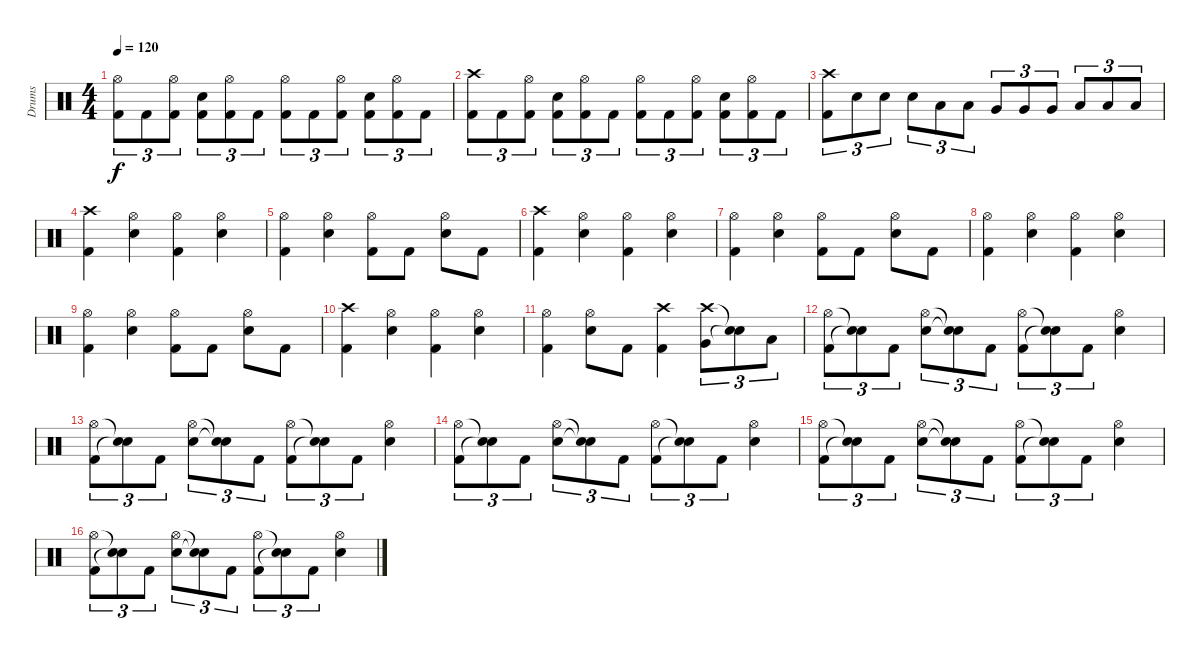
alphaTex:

\track ("Drums" "Drums") {instrument percussion}
\staff {score}
\articulation defaults
\ts (4 4)
\tempo 120
\clef neutral
\ks c
("Hi-Hat (open)" "Kick (hit) 2").8{tu (3 2) dy f} "Kick (hit) 2".8{tu (3 2)} ("Hi-Hat (open)" "Kick (hit) 2").8{tu (3 2)} ("Electric Snare (hit)" "Kick (hit) 2").8{tu (3 2)} ("Hi-Hat (open)" "Kick (hit) 2").8{tu (3 2)} "Kick (hit) 2".8{tu (3 2)} ("Hi-Hat (open)" "Kick (hit) 2").8{tu (3 2)} "Kick (hit) 2".8{tu (3 2)} ("Hi-Hat (open)" "Kick (hit) 2").8{tu (3 2)} ("Electric Snare (hit)" "Kick (hit) 2").8{tu (3 2)} ("Hi-Hat (open)" "Kick (hit) 2").8{tu (3 2)} "Kick (hit) 2".8{tu (3 2)} |
("Crash high (hit)" "Kick (hit) 2").8{tu (3 2)} "Kick (hit) 2".8{tu (3 2)} ("Hi-Hat (open)" "Kick (hit) 2").8{tu (3 2)} ("Electric Snare (hit)" "Kick (hit) 2").8{tu (3 2)} ("Hi-Hat (open)" "Kick (hit) 2").8{tu (3 2)} "Kick (hit) 2".8{tu (3 2)} ("Hi-Hat (open)" "Kick (hit) 2").8{tu (3 2)} "Kick (hit) 2".8{tu (3 2)} ("Hi-Hat (open)" "Kick (hit) 2").8{tu (3 2)} ("Electric Snare (hit)" "Kick (hit) 2").8{tu (3 2)} ("Hi-Hat (open)" "Kick (hit) 2").8{tu (3 2)} "Kick (hit) 2".8{tu (3 2)} |
("Crash high (hit)" "Kick (hit) 2").8{tu (3 2)} "Electric Snare (hit)".8{tu (3 2)} "Electric Snare (hit)".8{tu (3 2)} "Electric Snare (hit)".8{tu (3 2)} "Low Tom (hit)".8{tu (3 2)} "Low Tom (hit)".8{tu (3 2)} "Very Low Tom (hit)".8{tu (3 2)} "Very Low Tom (hit)".8{tu (3 2)} "Very Low Tom (hit)".8{tu (3 2)} "Low Floor Tom (hit)".8{tu (3 2)} "Low Floor Tom (hit)".8{tu (3 2)} "Low Floor Tom (hit)".8{tu (3 2)} |
("Crash high (hit)" "Kick (hit) 2").4 ("Hi-Hat (open)" "Electric Snare (hit)").4 ("Hi-Hat (open)" "Kick (hit) 2").4 ("Hi-Hat (open)" "Electric Snare (hit)").4 |
("Hi-Hat (open)" "Kick (hit) 2").4 ("Hi-Hat (open)" "Electric Snare (hit)").4 ("Hi-Hat (open)" "Kick (hit) 2").8 "Kick (hit) 2".8 ("Hi-Hat (open)" "Electric Snare (hit)").8 "Kick (hit) 2".8 |
("Crash high (hit)" "Kick (hit) 2").4 ("Hi-Hat (open)" "Electric Snare (hit)").4 ("Hi-Hat (open)" "Kick (hit) 2").4 ("Hi-Hat (open)" "Electric Snare (hit)").4 |
("Hi-Hat (open)" "Kick (hit) 2").4 ("Hi-Hat (open)" "Electric Snare (hit)").4 ("Hi-Hat (open)" "Kick (hit) 2").8 "Kick (hit) 2".8 ("Hi-Hat (open)" "Electric Snare (hit)").8 "Kick (hit) 2".8 |
("Hi-Hat (open)" "Kick (hit) 2").4 ("Hi-Hat (open)" "Electric Snare (hit)").4 ("Hi-Hat (open)" "Kick (hit) 2").4 ("Hi-Hat (open)" "Electric Snare (hit)").4 |
("Hi-Hat (open)" "Kick (hit) 2").4 ("Hi-Hat (open)" "Electric Snare (hit)").4 ("Hi-Hat (open)" "Kick (hit) 2").8 "Kick (hit) 2".8 ("Hi-Hat (open)" "Electric Snare (hit)").8 "Kick (hit) 2".8 |
("Crash high (hit)" "Kick (hit) 2").4 ("Hi-Hat (open)" "Electric Snare (hit)").4 ("Hi-Hat (open)" "Kick (hit) 2").4 ("Hi-Hat (open)" "Electric Snare (hit)").4 |
("Hi-Hat (open)" "Kick (hit) 2").4 ("Hi-Hat (open)" "Electric Snare (hit)").8 "Kick (hit) 2".8 ("Crash high (hit)" "Kick (hit) 2").4 ("Crash high (hit)" "Very Low Tom (hit)").8{tu (3 2)} ("Snare (hit)"{t} "Snare (hit)"{t}).8{tu (3 2)} "Low Floor Tom (hit)".8{tu (3 2)} |
("Hi-Hat (open)" "Kick (hit) 2").8{tu (3 2)} ("Snare (hit)"{t} "Snare (hit)"{t}).8{tu (3 2)} "Kick (hit) 2".8{tu (3 2)} ("Hi-Hat (open)" "Electric Snare (hit)").8{tu (3 2)} ("Snare (hit)"{t} "Snare (hit)"{t}).8{tu (3 2)} "Kick (hit) 2".8{tu (3 2)} ("Hi-Hat (open)" "Kick (hit) 2").8{tu (3 2)} ("Snare (hit)"{t} "Snare (hit)"{t}).8{tu (3 2)} "Kick (hit) 2".8{tu (3 2)} ("Hi-Hat (open)" "Electric Snare (hit)").4 |
("Hi-Hat (open)" "Kick (hit) 2").8{tu (3 2)} ("Snare (hit)"{t} "Snare (hit)"{t}).8{tu (3 2)} "Kick (hit) 2".8{tu (3 2)} ("Hi-Hat (open)" "Electric Snare (hit)").8{tu (3 2)} ("Snare (hit)"{t} "Snare (hit)"{t}).8{tu (3 2)} "Kick (hit) 2".8{tu (3 2)} ("Hi-Hat (open)" "Kick (hit) 2").8{tu (3 2)} ("Snare (hit)"{t} "Snare (hit)"{t}).8{tu (3 2)} "Kick (hit) 2".8{tu (3 2)} ("Hi-Hat (open)" "Electric Snare (hit)").4 |
("Hi-Hat (open)" "Kick (hit) 2").8{tu (3 2)} ("Snare (hit)"{t} "Snare (hit)"{t}).8{tu (3 2)} "Kick (hit) 2".8{tu (3 2)} ("Hi-Hat (open)" "Electric Snare (hit)").8{tu (3 2)} ("Snare (hit)"{t} "Snare (hit)"{t}).8{tu (3 2)} "Kick (hit) 2".8{tu (3 2)} ("Hi-Hat (open)" "Kick (hit) 2").8{tu (3 2)} ("Snare (hit)"{t} "Snare (hit)"{t}).8{tu (3 2)} "Kick (hit) 2".8{tu (3 2)} ("Hi-Hat (open)" "Electric Snare (hit)").4 |
("Hi-Hat (open)" "Kick (hit) 2").8{tu (3 2)} ("Snare (hit)"{t} "Snare (hit)"{t}).8{tu (3 2)} "Kick (hit) 2".8{tu (3 2)} ("Hi-Hat (open)" "Electric Snare (hit)").8{tu (3 2)} ("Snare (hit)"{t} "Snare (hit)"{t}).8{tu (3 2)} "Kick (hit) 2".8{tu (3 2)} ("Hi-Hat (open)" "Kick (hit) 2").8{tu (3 2)} ("Snare (hit)"{t} "Snare (hit)"{t}).8{tu (3 2)} "Kick (hit) 2".8{tu (3 2)} ("Hi-Hat (open)" "Electric Snare (hit)").4 |
("Hi-Hat (open)" "Kick (hit) 2").8{tu (3 2)} ("Snare (hit)"{t} "Snare (hit)"{t}).8{tu (3 2)} "Kick (hit) 2".8{tu (3 2)} ("Hi-Hat (open)" "Electric Snare (hit)").8{tu (3 2)} ("Snare (hit)"{t} "Snare (hit)"{t}).8{tu (3 2)} "Kick (hit) 2".8{tu (3 2)} ("Hi-Hat (open)" "Kick (hit) 2").8{tu (3 2)} ("Snare (hit)"{t} "Snare (hit)"{t}).8{tu (3 2)} "Kick (hit) 2".8{tu (3 2)} ("Hi-Hat (open)" "Electric Snare (hit)").4
